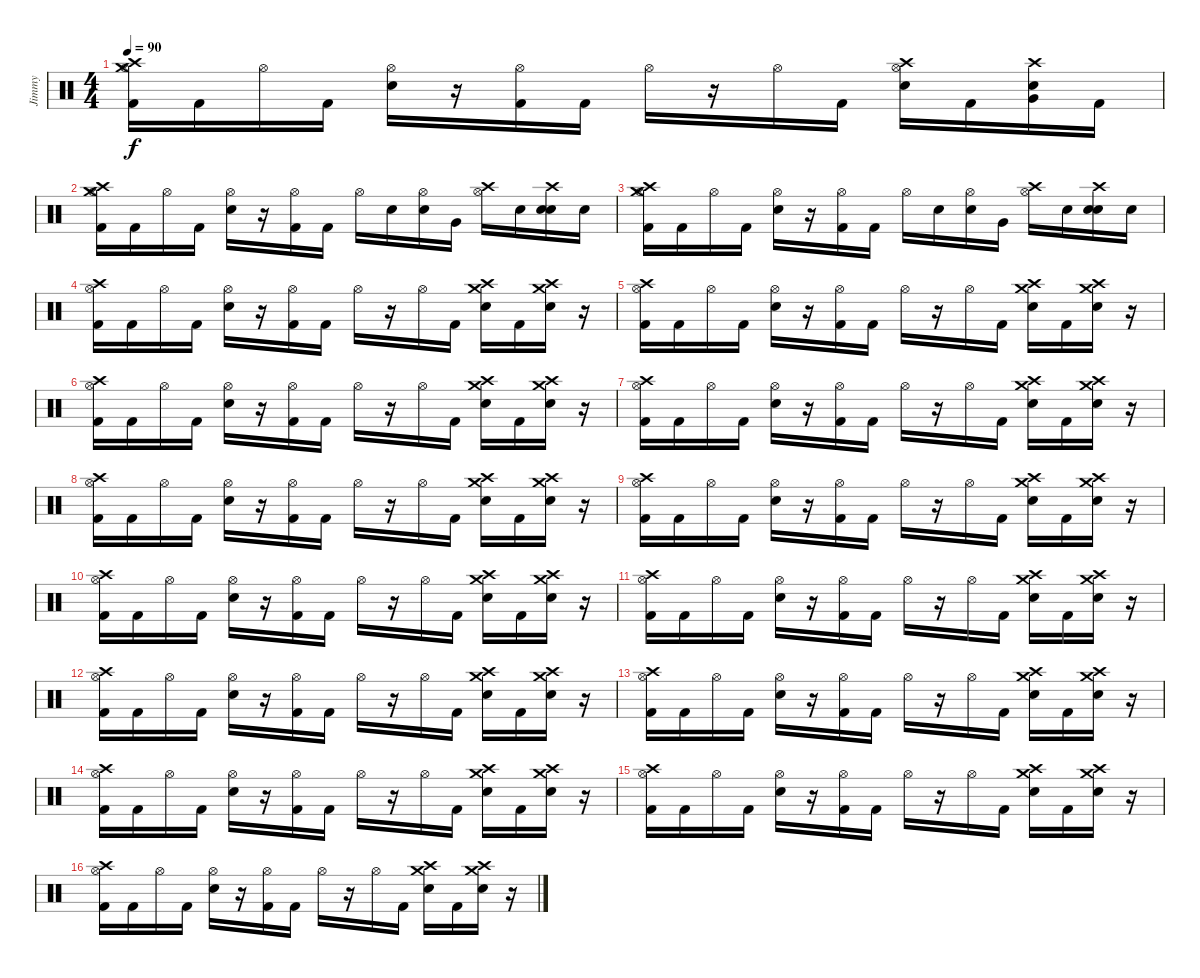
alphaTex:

\track ("Jimmy" "Jimmy") {instrument percussion}
\staff {score}
\articulation defaults
\ts (4 4)
\tempo 90
\clef neutral
\ks c
("Kick (hit) 2" "Hi-Hat (open)" "Crash high (hit)" "Crash medium (hit)").16{dy f} "Kick (hit) 2".16 "Hi-Hat (open)".16 "Kick (hit) 2".16 ("Electric Snare (hit)" "Hi-Hat (open)").16 r.16 ("Kick (hit) 2" "Hi-Hat (open)").16 "Kick (hit) 2".16 "Hi-Hat (open)".16 r.16 "Hi-Hat (open)".16 "Kick (hit) 2".16 ("Electric Snare (hit)" "Hi-Hat (open)" "Crash high (hit)").16 "Kick (hit) 2".16 ("Very Low Tom (hit)" "Electric Snare (hit)" "Crash high (hit)").16 "Kick (hit) 2".16 |
("Kick (hit) 2" "Hi-Hat (open)" "Crash high (hit)" "Crash medium (hit)").16 "Kick (hit) 2".16 "Hi-Hat (open)".16 "Kick (hit) 2".16 ("Electric Snare (hit)" "Hi-Hat (open)").16 r.16 ("Kick (hit) 2" "Hi-Hat (open)").16 "Kick (hit) 2".16 "Hi-Hat (open)".16 "Electric Snare (hit)".16 ("Electric Snare (hit)" "Hi-Hat (open)").16 "Very Low Tom (hit)".16 ("Hi-Hat (open)" "Crash high (hit)").16 "Electric Snare (hit)".16 ("Electric Snare (hit)" "Electric Snare (hit)" "Crash high (hit)").16 "Electric Snare (hit)".16 |
("Kick (hit) 2" "Hi-Hat (open)" "Crash high (hit)" "Crash medium (hit)").16 "Kick (hit) 2".16 "Hi-Hat (open)".16 "Kick (hit) 2".16 ("Electric Snare (hit)" "Hi-Hat (open)").16 r.16 ("Kick (hit) 2" "Hi-Hat (open)").16 "Kick (hit) 2".16 "Hi-Hat (open)".16 "Electric Snare (hit)".16 ("Electric Snare (hit)" "Hi-Hat (open)").16 "Very Low Tom (hit)".16 ("Hi-Hat (open)" "Crash high (hit)").16 "Electric Snare (hit)".16 ("Electric Snare (hit)" "Electric Snare (hit)" "Crash high (hit)").16 "Electric Snare (hit)".16 |
("Kick (hit) 2" "Hi-Hat (open)" "Crash high (hit)").16 "Kick (hit) 2".16 "Hi-Hat (open)".16 "Kick (hit) 2".16 ("Electric Snare (hit)" "Hi-Hat (open)").16 r.16 ("Kick (hit) 2" "Hi-Hat (open)").16 "Kick (hit) 2".16 "Hi-Hat (open)".16 r.16 "Hi-Hat (open)".16 "Kick (hit) 2".16 ("Electric Snare (hit)" "Crash high (hit)" "Crash medium (hit)").16 "Kick (hit) 2".16 ("Electric Snare (hit)" "Crash high (hit)" "Crash medium (hit)").16 r.16 |
("Kick (hit) 2" "Hi-Hat (open)" "Crash high (hit)").16 "Kick (hit) 2".16 "Hi-Hat (open)".16 "Kick (hit) 2".16 ("Electric Snare (hit)" "Hi-Hat (open)").16 r.16 ("Kick (hit) 2" "Hi-Hat (open)").16 "Kick (hit) 2".16 "Hi-Hat (open)".16 r.16 "Hi-Hat (open)".16 "Kick (hit) 2".16 ("Electric Snare (hit)" "Crash high (hit)" "Crash medium (hit)").16 "Kick (hit) 2".16 ("Electric Snare (hit)" "Crash high (hit)" "Crash medium (hit)").16 r.16 |
("Kick (hit) 2" "Hi-Hat (open)" "Crash high (hit)").16 "Kick (hit) 2".16 "Hi-Hat (open)".16 "Kick (hit) 2".16 ("Electric Snare (hit)" "Hi-Hat (open)").16 r.16 ("Kick (hit) 2" "Hi-Hat (open)").16 "Kick (hit) 2".16 "Hi-Hat (open)".16 r.16 "Hi-Hat (open)".16 "Kick (hit) 2".16 ("Electric Snare (hit)" "Crash high (hit)" "Crash medium (hit)").16 "Kick (hit) 2".16 ("Electric Snare (hit)" "Crash high (hit)" "Crash medium (hit)").16 r.16 |
("Kick (hit) 2" "Hi-Hat (open)" "Crash high (hit)").16 "Kick (hit) 2".16 "Hi-Hat (open)".16 "Kick (hit) 2".16 ("Electric Snare (hit)" "Hi-Hat (open)").16 r.16 ("Kick (hit) 2" "Hi-Hat (open)").16 "Kick (hit) 2".16 "Hi-Hat (open)".16 r.16 "Hi-Hat (open)".16 "Kick (hit) 2".16 ("Electric Snare (hit)" "Crash high (hit)" "Crash medium (hit)").16 "Kick (hit) 2".16 ("Electric Snare (hit)" "Crash high (hit)" "Crash medium (hit)").16 r.16 |
("Kick (hit) 2" "Hi-Hat (open)" "Crash high (hit)").16 "Kick (hit) 2".16 "Hi-Hat (open)".16 "Kick (hit) 2".16 ("Electric Snare (hit)" "Hi-Hat (open)").16 r.16 ("Kick (hit) 2" "Hi-Hat (open)").16 "Kick (hit) 2".16 "Hi-Hat (open)".16 r.16 "Hi-Hat (open)".16 "Kick (hit) 2".16 ("Electric Snare (hit)" "Crash high (hit)" "Crash medium (hit)").16 "Kick (hit) 2".16 ("Electric Snare (hit)" "Crash high (hit)" "Crash medium (hit)").16 r.16 |
("Kick (hit) 2" "Hi-Hat (open)" "Crash high (hit)").16 "Kick (hit) 2".16 "Hi-Hat (open)".16 "Kick (hit) 2".16 ("Electric Snare (hit)" "Hi-Hat (open)").16 r.16 ("Kick (hit) 2" "Hi-Hat (open)").16 "Kick (hit) 2".16 "Hi-Hat (open)".16 r.16 "Hi-Hat (open)".16 "Kick (hit) 2".16 ("Electric Snare (hit)" "Crash high (hit)" "Crash medium (hit)").16 "Kick (hit) 2".16 ("Electric Snare (hit)" "Crash high (hit)" "Crash medium (hit)").16 r.16 |
("Kick (hit) 2" "Hi-Hat (open)" "Crash high (hit)").16 "Kick (hit) 2".16 "Hi-Hat (open)".16 "Kick (hit) 2".16 ("Electric Snare (hit)" "Hi-Hat (open)").16 r.16 ("Kick (hit) 2" "Hi-Hat (open)").16 "Kick (hit) 2".16 "Hi-Hat (open)".16 r.16 "Hi-Hat (open)".16 "Kick (hit) 2".16 ("Electric Snare (hit)" "Crash high (hit)" "Crash medium (hit)").16 "Kick (hit) 2".16 ("Electric Snare (hit)" "Crash high (hit)" "Crash medium (hit)").16 r.16 |
("Kick (hit) 2" "Hi-Hat (open)" "Crash high (hit)").16 "Kick (hit) 2".16 "Hi-Hat (open)".16 "Kick (hit) 2".16 ("Electric Snare (hit)" "Hi-Hat (open)").16 r.16 ("Kick (hit) 2" "Hi-Hat (open)").16 "Kick (hit) 2".16 "Hi-Hat (open)".16 r.16 "Hi-Hat (open)".16 "Kick (hit) 2".16 ("Electric Snare (hit)" "Crash high (hit)" "Crash medium (hit)").16 "Kick (hit) 2".16 ("Electric Snare (hit)" "Crash high (hit)" "Crash medium (hit)").16 r.16 |
("Kick (hit) 2" "Hi-Hat (open)" "Crash high (hit)").16 "Kick (hit) 2".16 "Hi-Hat (open)".16 "Kick (hit) 2".16 ("Electric Snare (hit)" "Hi-Hat (open)").16 r.16 ("Kick (hit) 2" "Hi-Hat (open)").16 "Kick (hit) 2".16 "Hi-Hat (open)".16 r.16 "Hi-Hat (open)".16 "Kick (hit) 2".16 ("Electric Snare (hit)" "Crash high (hit)" "Crash medium (hit)").16 "Kick (hit) 2".16 ("Electric Snare (hit)" "Crash high (hit)" "Crash medium (hit)").16 r.16 |
("Kick (hit) 2" "Hi-Hat (open)" "Crash high (hit)").16 "Kick (hit) 2".16 "Hi-Hat (open)".16 "Kick (hit) 2".16 ("Electric Snare (hit)" "Hi-Hat (open)").16 r.16 ("Kick (hit) 2" "Hi-Hat (open)").16 "Kick (hit) 2".16 "Hi-Hat (open)".16 r.16 "Hi-Hat (open)".16 "Kick (hit) 2".16 ("Electric Snare (hit)" "Crash high (hit)" "Crash medium (hit)").16 "Kick (hit) 2".16 ("Electric Snare (hit)" "Crash high (hit)" "Crash medium (hit)").16 r.16 |
("Kick (hit) 2" "Hi-Hat (open)" "Crash high (hit)").16 "Kick (hit) 2".16 "Hi-Hat (open)".16 "Kick (hit) 2".16 ("Electric Snare (hit)" "Hi-Hat (open)").16 r.16 ("Kick (hit) 2" "Hi-Hat (open)").16 "Kick (hit) 2".16 "Hi-Hat (open)".16 r.16 "Hi-Hat (open)".16 "Kick (hit) 2".16 ("Electric Snare (hit)" "Crash high (hit)" "Crash medium (hit)").16 "Kick (hit) 2".16 ("Electric Snare (hit)" "Crash high (hit)" "Crash medium (hit)").16 r.16 |
("Kick (hit) 2" "Hi-Hat (open)" "Crash high (hit)").16 "Kick (hit) 2".16 "Hi-Hat (open)".16 "Kick (hit) 2".16 ("Electric Snare (hit)" "Hi-Hat (open)").16 r.16 ("Kick (hit) 2" "Hi-Hat (open)").16 "Kick (hit) 2".16 "Hi-Hat (open)".16 r.16 "Hi-Hat (open)".16 "Kick (hit) 2".16 ("Electric Snare (hit)" "Crash high (hit)" "Crash medium (hit)").16 "Kick (hit) 2".16 ("Electric Snare (hit)" "Crash high (hit)" "Crash medium (hit)").16 r.16 |
("Kick (hit) 2" "Hi-Hat (open)" "Crash high (hit)").16 "Kick (hit) 2".16 "Hi-Hat (open)".16 "Kick (hit) 2".16 ("Electric Snare (hit)" "Hi-Hat (open)").16 r.16 ("Kick (hit) 2" "Hi-Hat (open)").16 "Kick (hit) 2".16 "Hi-Hat (open)".16 r.16 "Hi-Hat (open)".16 "Kick (hit) 2".16 ("Electric Snare (hit)" "Crash high (hit)" "Crash medium (hit)").16 "Kick (hit) 2".16 ("Electric Snare (hit)" "Crash high (hit)" "Crash medium (hit)").16 r.16
